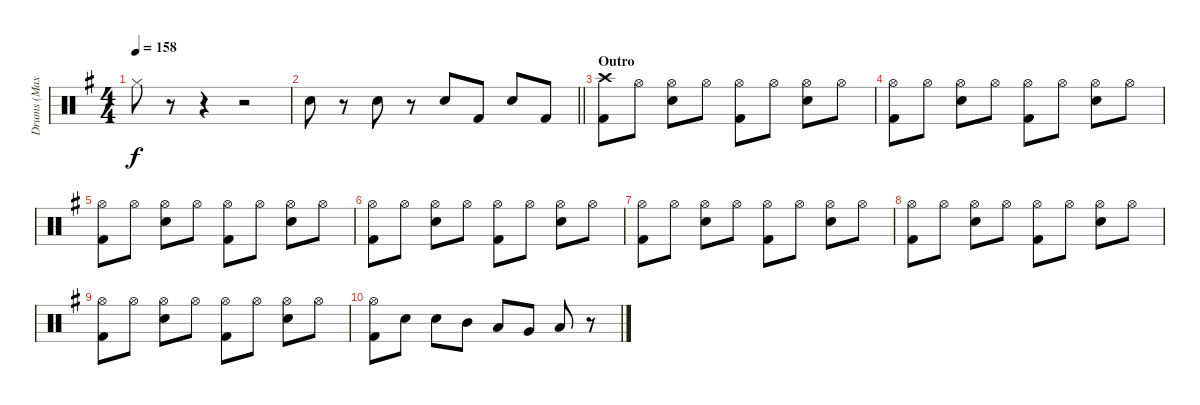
\track ("Drums (Max)" "Drums (Max") {instrument percussion}
\staff {score}
\articulation defaults
\ts (4 4)
\tempo 158
\clef neutral
\ks g "Hi-Hat (closed)".8{dy f}
r.8 r.4 r.2 |
\barLineRight lightlight "Snare (hit) 2".8
r.8 "Snare (hit) 2".8 r.8 "Snare (hit) 2".8 "Kick (hit) 2".8 "Snare (hit) 2".8 "Kick (hit) 2".8 |
\section ("" "Outro")
("Crash high (hit)" "Kick (hit) 2").8 "Hi-Hat (open)".8 ("Hi-Hat (open)" "Snare (hit) 2").8 "Hi-Hat (open)".8 ("Hi-Hat (open)" "Kick (hit) 2").8 "Hi-Hat (open)".8 ("Hi-Hat (open)" "Snare (hit) 2").8 "Hi-Hat (open)".8 |
("Hi-Hat (open)" "Kick (hit) 2").8 "Hi-Hat (open)".8 ("Hi-Hat (open)" "Snare (hit) 2").8 "Hi-Hat (open)".8 ("Hi-Hat (open)" "Kick (hit) 2").8 "Hi-Hat (open)".8 ("Hi-Hat (open)" "Snare (hit) 2").8 "Hi-Hat (open)".8 |
("Hi-Hat (open)" "Kick (hit) 2").8 "Hi-Hat (open)".8 ("Hi-Hat (open)" "Snare (hit) 2").8 "Hi-Hat (open)".8 ("Hi-Hat (open)" "Kick (hit) 2").8 "Hi-Hat (open)".8 ("Hi-Hat (open)" "Snare (hit) 2").8 "Hi-Hat (open)".8 |
("Hi-Hat (open)" "Kick (hit) 2").8 "Hi-Hat (open)".8 ("Hi-Hat (open)" "Snare (hit) 2").8 "Hi-Hat (open)".8 ("Hi-Hat (open)" "Kick (hit) 2").8 "Hi-Hat (open)".8 ("Hi-Hat (open)" "Snare (hit) 2").8 "Hi-Hat (open)".8 |
("Hi-Hat (open)" "Kick (hit) 2").8 "Hi-Hat (open)".8 ("Hi-Hat (open)" "Snare (hit) 2").8 "Hi-Hat (open)".8 ("Hi-Hat (open)" "Kick (hit) 2").8 "Hi-Hat (open)".8 ("Hi-Hat (open)" "Snare (hit) 2").8 "Hi-Hat (open)".8 |
("Hi-Hat (open)" "Kick (hit) 2").8 "Hi-Hat (open)".8 ("Hi-Hat (open)" "Snare (hit) 2").8 "Hi-Hat (open)".8 ("Hi-Hat (open)" "Kick (hit) 2").8 "Hi-Hat (open)".8 ("Hi-Hat (open)" "Snare (hit) 2").8 "Hi-Hat (open)".8 |
("Hi-Hat (open)" "Kick (hit) 2").8 "Hi-Hat (open)".8 ("Hi-Hat (open)" "Snare (hit) 2").8 "Hi-Hat (open)".8 ("Hi-Hat (open)" "Kick (hit) 2").8 "Hi-Hat (open)".8 ("Hi-Hat (open)" "Snare (hit) 2").8 "Hi-Hat (open)".8 |
("Hi-Hat (open)" "Kick (hit) 2").8 "Snare (hit) 2".8 "Snare (hit) 2".8 "Mid Tom (hit)".8 "Low Tom (hit)".8 "Very Low Tom (hit)".8 "Low Floor Tom (hit)".8 r.8
